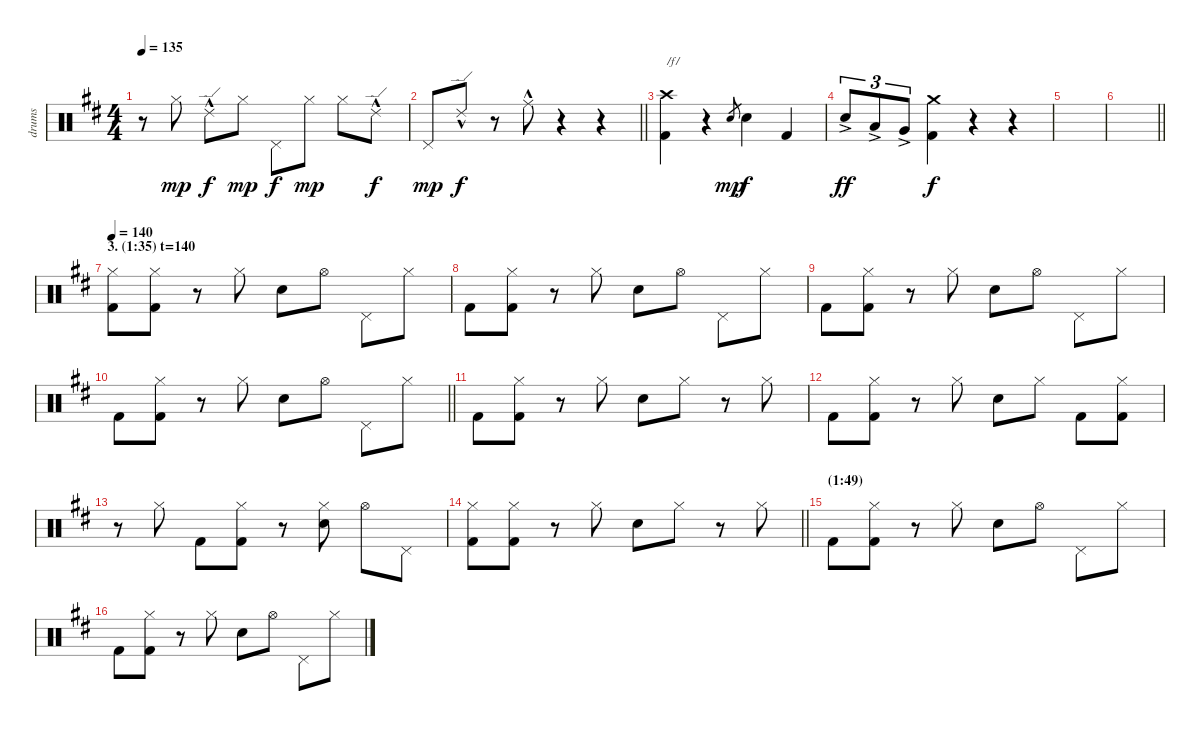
\track ("drums" "drums") {instrument percussion}
\staff {score}
\articulation defaults
\ts (4 4)
\tempo 135
\clef neutral
\ks d
r.8{dy mp} "Hi-Hat (closed)".8 "Ride (edge) 2"{hac}.8{dy f} "Hi-Hat (closed)".8{dy mp} "Pedal Hi-Hat (hit)".8{dy f} "Hi-Hat (closed)".8{dy mp} "Hi-Hat (closed)".8 "Ride (edge) 2"{hac}.8{dy f} |
\barLineRight lightlight "Pedal Hi-Hat (hit)".8{dy mp} "Ride (edge) 2"{hac}.8{dy f}
r.8 "Ride (middle)"{hac}.8 r.4 r.4 |
("Crash high (hit)" "Kick (hit) 2").4{txt "/f/"} r.4 "Electric Snare (hit)".8{gr dy mp} "Electric Snare (hit)".4{dy f} "Kick (hit) 2".4 |
"Electric Snare (hit)"{ac}.8{tu (3 2) dy ff} "Low Tom (hit)"{ac}.8{tu (3 2)} "Very Low Tom (hit)"{ac}.8{tu (3 2)} ("Crash medium (hit)" "Kick (hit) 2").4{dy f} r.4 r.4 |
|
\barLineRight lightlight
|
\section ("" "3. (1:35) t=140")
\tempo 140
("Hi-Hat (closed)" "Kick (hit) 2").8 ("Hi-Hat (closed)" "Kick (hit) 2").8 r.8 "Hi-Hat (closed)".8 "Electric Snare (hit)".8 "Hi-Hat (open)".8 "Pedal Hi-Hat (hit)".8 "Hi-Hat (closed)".8 |
"Kick (hit) 2".8 ("Hi-Hat (closed)" "Kick (hit) 2").8 r.8 "Hi-Hat (closed)".8 "Electric Snare (hit)".8 "Hi-Hat (open)".8 "Pedal Hi-Hat (hit)".8 "Hi-Hat (closed)".8 |
"Kick (hit) 2".8 ("Hi-Hat (closed)" "Kick (hit) 2").8 r.8 "Hi-Hat (closed)".8 "Electric Snare (hit)".8 "Hi-Hat (open)".8 "Pedal Hi-Hat (hit)".8 "Hi-Hat (closed)".8 |
\barLineRight lightlight "Kick (hit) 2".8
("Hi-Hat (closed)" "Kick (hit) 2").8 r.8 "Hi-Hat (closed)".8 "Electric Snare (hit)".8 "Hi-Hat (open)".8 "Pedal Hi-Hat (hit)".8 "Hi-Hat (closed)".8 |
"Kick (hit) 2".8 ("Hi-Hat (closed)" "Kick (hit) 2").8 r.8 "Hi-Hat (closed)".8 "Electric Snare (hit)".8 "Hi-Hat (closed)".8 r.8 "Hi-Hat (closed)".8 |
"Kick (hit) 2".8 ("Hi-Hat (closed)" "Kick (hit) 2").8 r.8 "Hi-Hat (closed)".8 "Electric Snare (hit)".8 "Hi-Hat (closed)".8 "Kick (hit) 2".8 ("Hi-Hat (closed)" "Kick (hit) 2").8 |
r.8 "Hi-Hat (closed)".8 "Kick (hit) 2".8 ("Hi-Hat (closed)" "Kick (hit) 2").8 r.8 ("Hi-Hat (closed)" "Electric Snare (hit)").8 "Hi-Hat (open)".8 "Pedal Hi-Hat (hit)".8 |
\barLineRight lightlight
("Hi-Hat (closed)" "Kick (hit) 2").8 ("Hi-Hat (closed)" "Kick (hit) 2").8 r.8 "Hi-Hat (closed)".8 "Electric Snare (hit)".8 "Hi-Hat (closed)".8 r.8 "Hi-Hat (closed)".8 |
\section ("" "(1:49)")
"Kick (hit) 2".8 ("Hi-Hat (closed)" "Kick (hit) 2").8 r.8 "Hi-Hat (closed)".8 "Electric Snare (hit)".8 "Hi-Hat (open)".8 "Pedal Hi-Hat (hit)".8 "Hi-Hat (closed)".8 |
"Kick (hit) 2".8 ("Hi-Hat (closed)" "Kick (hit) 2").8 r.8 "Hi-Hat (closed)".8 "Electric Snare (hit)".8 "Hi-Hat (open)".8 "Pedal Hi-Hat (hit)".8 "Hi-Hat (closed)".8
